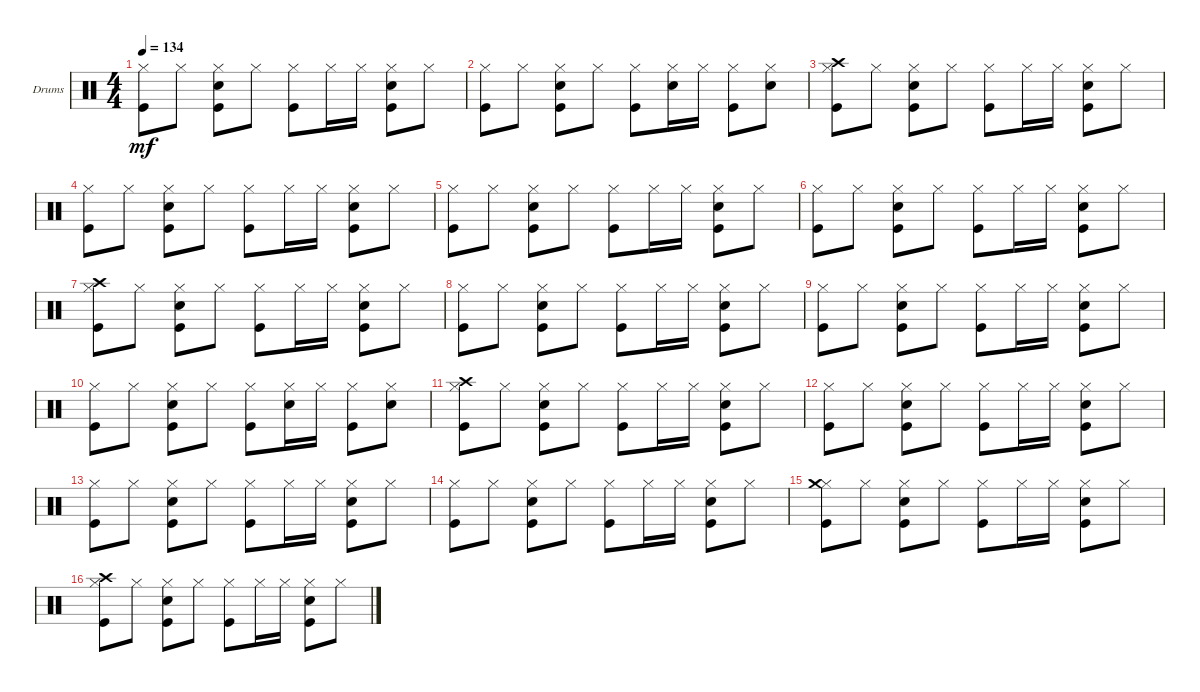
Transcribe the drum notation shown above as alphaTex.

\bracketExtendMode groupsimilarinstruments
\firstSystemTrackNameOrientation horizontal
\otherSystemsTrackNameOrientation horizontal
\track ("DRUMSET" "Drums") {instrument percussion}
\staff {score}
\articulation defaults
\ts (4 4)
\tempo 134
\clef neutral
\ks c
("Kick (hit)" "Hi-Hat (closed)").8{dy mf} "Hi-Hat (closed)".8 ("Kick (hit)" "Snare (hit) 2" "Hi-Hat (closed)").8 "Hi-Hat (closed)".8 ("Kick (hit)" "Hi-Hat (closed)").8 "Hi-Hat (closed)".16 "Hi-Hat (closed)".16 ("Kick (hit)" "Snare (hit) 2" "Hi-Hat (closed)").8 "Hi-Hat (closed)".8 |
("Kick (hit)" "Hi-Hat (closed)").8 "Hi-Hat (closed)".8 ("Kick (hit)" "Snare (hit) 2" "Hi-Hat (closed)").8 "Hi-Hat (closed)".8 ("Kick (hit)" "Hi-Hat (closed)").8 ("Snare (hit) 2" "Hi-Hat (closed)").16 "Hi-Hat (closed)".16 ("Kick (hit)" "Hi-Hat (closed)").8 ("Snare (hit) 2" "Hi-Hat (closed)").8 |
("Kick (hit)" "Hi-Hat (closed)" "Crash high (hit)").8 "Hi-Hat (closed)".8 ("Kick (hit)" "Snare (hit) 2" "Hi-Hat (closed)").8 "Hi-Hat (closed)".8 ("Kick (hit)" "Hi-Hat (closed)").8 "Hi-Hat (closed)".16 "Hi-Hat (closed)".16 ("Kick (hit)" "Snare (hit) 2" "Hi-Hat (closed)").8 "Hi-Hat (closed)".8 |
("Kick (hit)" "Hi-Hat (closed)").8 "Hi-Hat (closed)".8 ("Kick (hit)" "Snare (hit) 2" "Hi-Hat (closed)").8 "Hi-Hat (closed)".8 ("Kick (hit)" "Hi-Hat (closed)").8 "Hi-Hat (closed)".16 "Hi-Hat (closed)".16 ("Kick (hit)" "Snare (hit) 2" "Hi-Hat (closed)").8 "Hi-Hat (closed)".8 |
("Kick (hit)" "Hi-Hat (closed)").8 "Hi-Hat (closed)".8 ("Kick (hit)" "Snare (hit) 2" "Hi-Hat (closed)").8 "Hi-Hat (closed)".8 ("Kick (hit)" "Hi-Hat (closed)").8 "Hi-Hat (closed)".16 "Hi-Hat (closed)".16 ("Kick (hit)" "Snare (hit) 2" "Hi-Hat (closed)").8 "Hi-Hat (closed)".8 |
("Kick (hit)" "Hi-Hat (closed)").8 "Hi-Hat (closed)".8 ("Kick (hit)" "Snare (hit) 2" "Hi-Hat (closed)").8 "Hi-Hat (closed)".8 ("Kick (hit)" "Hi-Hat (closed)").8 "Hi-Hat (closed)".16 "Hi-Hat (closed)".16 ("Kick (hit)" "Snare (hit) 2" "Hi-Hat (closed)").8 "Hi-Hat (closed)".8 |
("Kick (hit)" "Hi-Hat (closed)" "Crash high (hit)").8 "Hi-Hat (closed)".8 ("Kick (hit)" "Snare (hit) 2" "Hi-Hat (closed)").8 "Hi-Hat (closed)".8 ("Kick (hit)" "Hi-Hat (closed)").8 "Hi-Hat (closed)".16 "Hi-Hat (closed)".16 ("Kick (hit)" "Snare (hit) 2" "Hi-Hat (closed)").8 "Hi-Hat (closed)".8 |
("Kick (hit)" "Hi-Hat (closed)").8 "Hi-Hat (closed)".8 ("Kick (hit)" "Snare (hit) 2" "Hi-Hat (closed)").8 "Hi-Hat (closed)".8 ("Kick (hit)" "Hi-Hat (closed)").8 "Hi-Hat (closed)".16 "Hi-Hat (closed)".16 ("Kick (hit)" "Snare (hit) 2" "Hi-Hat (closed)").8 "Hi-Hat (closed)".8 |
("Kick (hit)" "Hi-Hat (closed)").8 "Hi-Hat (closed)".8 ("Kick (hit)" "Snare (hit) 2" "Hi-Hat (closed)").8 "Hi-Hat (closed)".8 ("Kick (hit)" "Hi-Hat (closed)").8 "Hi-Hat (closed)".16 "Hi-Hat (closed)".16 ("Kick (hit)" "Snare (hit) 2" "Hi-Hat (closed)").8 "Hi-Hat (closed)".8 |
("Kick (hit)" "Hi-Hat (closed)").8 "Hi-Hat (closed)".8 ("Kick (hit)" "Snare (hit) 2" "Hi-Hat (closed)").8 "Hi-Hat (closed)".8 ("Kick (hit)" "Hi-Hat (closed)").8 ("Snare (hit) 2" "Hi-Hat (closed)").16 "Hi-Hat (closed)".16 ("Kick (hit)" "Hi-Hat (closed)").8 ("Snare (hit) 2" "Hi-Hat (closed)").8 |
("Kick (hit)" "Hi-Hat (closed)" "Crash high (hit)").8 "Hi-Hat (closed)".8 ("Kick (hit)" "Snare (hit) 2" "Hi-Hat (closed)").8 "Hi-Hat (closed)".8 ("Kick (hit)" "Hi-Hat (closed)").8 "Hi-Hat (closed)".16 "Hi-Hat (closed)".16 ("Kick (hit)" "Snare (hit) 2" "Hi-Hat (closed)").8 "Hi-Hat (closed)".8 |
("Kick (hit)" "Hi-Hat (closed)").8 "Hi-Hat (closed)".8 ("Kick (hit)" "Snare (hit) 2" "Hi-Hat (closed)").8 "Hi-Hat (closed)".8 ("Kick (hit)" "Hi-Hat (closed)").8 "Hi-Hat (closed)".16 "Hi-Hat (closed)".16 ("Kick (hit)" "Snare (hit) 2" "Hi-Hat (closed)").8 "Hi-Hat (closed)".8 |
("Kick (hit)" "Hi-Hat (closed)").8 "Hi-Hat (closed)".8 ("Kick (hit)" "Snare (hit) 2" "Hi-Hat (closed)").8 "Hi-Hat (closed)".8 ("Kick (hit)" "Hi-Hat (closed)").8 "Hi-Hat (closed)".16 "Hi-Hat (closed)".16 ("Kick (hit)" "Snare (hit) 2" "Hi-Hat (closed)").8 "Hi-Hat (closed)".8 |
("Kick (hit)" "Hi-Hat (closed)").8 "Hi-Hat (closed)".8 ("Kick (hit)" "Snare (hit) 2" "Hi-Hat (closed)").8 "Hi-Hat (closed)".8 ("Kick (hit)" "Hi-Hat (closed)").8 "Hi-Hat (closed)".16 "Hi-Hat (closed)".16 ("Kick (hit)" "Snare (hit) 2" "Hi-Hat (closed)").8 "Hi-Hat (closed)".8 |
("Kick (hit)" "Hi-Hat (closed)" "Crash medium (hit)").8 "Hi-Hat (closed)".8 ("Kick (hit)" "Snare (hit) 2" "Hi-Hat (closed)").8 "Hi-Hat (closed)".8 ("Kick (hit)" "Hi-Hat (closed)").8 "Hi-Hat (closed)".16 "Hi-Hat (closed)".16 ("Kick (hit)" "Snare (hit) 2" "Hi-Hat (closed)").8 "Hi-Hat (closed)".8 |
("Kick (hit)" "Hi-Hat (closed)" "Crash high (hit)").8 "Hi-Hat (closed)".8 ("Kick (hit)" "Snare (hit) 2" "Hi-Hat (closed)").8 "Hi-Hat (closed)".8 ("Kick (hit)" "Hi-Hat (closed)").8 "Hi-Hat (closed)".16 "Hi-Hat (closed)".16 ("Kick (hit)" "Snare (hit) 2" "Hi-Hat (closed)").8 "Hi-Hat (closed)".8
